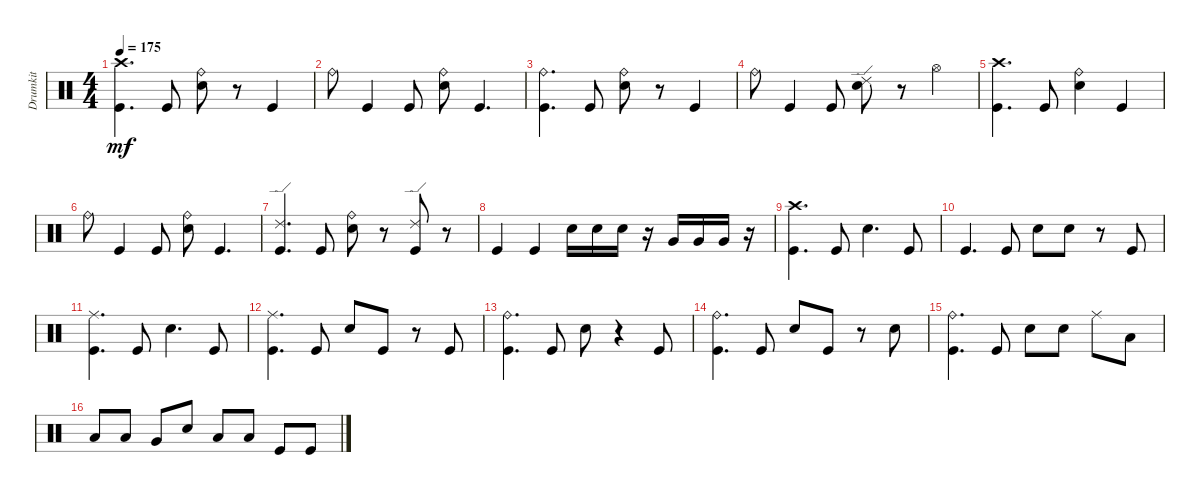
\track ("Drumkit" "Drumkit") {instrument percussion}
\staff {score}
\articulation defaults
\ts (4 4)
\tempo 175
\clef neutral
\ks c
("Kick (hit)" "Crash high (hit)").4{d dy mf} "Kick (hit)".8 ("Snare (hit) 2" "Ride (bell)").8 r.8 "Kick (hit)".4 |
"Ride (bell)".8 "Kick (hit)".4 "Kick (hit)".8 ("Snare (hit) 2" "Ride (bell)").8 "Kick (hit)".4{d} |
("Kick (hit)" "Ride (bell)").4{d} "Kick (hit)".8 ("Snare (hit) 2" "Ride (bell)").8 r.8 "Kick (hit)".4 |
"Ride (bell)".8 "Kick (hit)".4 "Kick (hit)".8 ("Snare (hit) 2" "Ride (edge) 2").8 r.8 "Hi-Hat (open)".4 |
("Kick (hit)" "Crash high (hit)").4{d} "Kick (hit)".8 ("Snare (hit) 2" "Ride (bell)").4 "Kick (hit)".4 |
"Ride (bell)".8 "Kick (hit)".4 "Kick (hit)".8 ("Snare (hit) 2" "Ride (bell)").8 "Kick (hit)".4{d} |
("Kick (hit)" "Ride (edge) 2").4{d} "Kick (hit)".8 ("Snare (hit) 2" "Ride (bell)").8 r.8 ("Kick (hit)" "Ride (edge) 2").8 r.8 |
"Kick (hit)".4 "Kick (hit)".4 "Snare (hit) 2".16 "Snare (hit) 2".16 "Snare (hit) 2".16 r.16 "Very Low Tom (hit)".16 "Very Low Tom (hit)".16 "Very Low Tom (hit)".16 r.16 |
("Kick (hit)" "Crash high (hit)").4{d} "Kick (hit)".8 "Snare (hit) 2".4{d} "Kick (hit)".8 |
"Kick (hit)".4{d} "Kick (hit)".8 "Snare (hit) 2".8 "Snare (hit) 2".8 r.8 "Kick (hit)".8 |
("Kick (hit)" "Ride (middle)").4{d} "Kick (hit)".8 "Snare (hit) 2".4{d} "Kick (hit)".8 |
("Kick (hit)" "Ride (middle)").4{d} "Kick (hit)".8 "Snare (hit) 2".8 "Kick (hit)".8 r.8 "Kick (hit)".8 |
("Kick (hit)" "Ride (bell)").4{d} "Kick (hit)".8 "Snare (hit) 2".8 r.4 "Kick (hit)".8 |
("Kick (hit)" "Ride (bell)").4{d} "Kick (hit)".8 "Snare (hit) 2".8 "Kick (hit)".8 r.8 "Snare (hit) 2".8 |
("Kick (hit)" "Ride (bell)").4{d} "Kick (hit)".8 "Snare (hit) 2".8 "Snare (hit) 2".8 "Ride (middle)".8 "Low Tom (hit)".8 |
"Low Floor Tom (hit)".8 "Low Floor Tom (hit)".8 "Very Low Tom (hit)".8 "Snare (hit) 2".8 "Low Tom (hit)".8 "Low Tom (hit)".8 "Kick (hit)".8 "Kick (hit)".8
